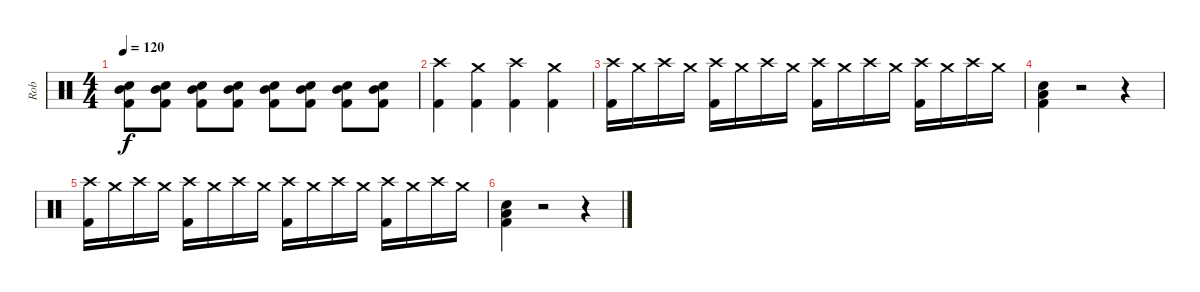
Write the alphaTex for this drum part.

\track ("Rob" "Rob") {instrument percussion}
\staff {score}
\articulation defaults
\ts (4 4)
\tempo 120
\clef neutral
\ks c
("Snare (hit) 2" "Kick (hit) 2" "Mid Tom (hit)").8{dy f} ("Snare (hit) 2" "Kick (hit) 2" "Mid Tom (hit)").8 ("Snare (hit) 2" "Kick (hit) 2" "Mid Tom (hit)").8 ("Snare (hit) 2" "Kick (hit) 2" "Mid Tom (hit)").8 ("Snare (hit) 2" "Kick (hit) 2" "Mid Tom (hit)").8 ("Snare (hit) 2" "Kick (hit) 2" "Mid Tom (hit)").8 ("Snare (hit) 2" "Kick (hit) 2" "Mid Tom (hit)").8 ("Snare (hit) 2" "Kick (hit) 2" "Mid Tom (hit)").8 |
("Crash high (hit)" "Kick (hit) 2").4 ("Crash medium (hit)" "Kick (hit) 2").4 ("Crash high (hit)" "Kick (hit) 2").4 ("Crash medium (hit)" "Kick (hit) 2").4 |
("Crash high (hit)" "Kick (hit) 2").16 "Crash medium (hit)".16 "Crash high (hit)".16 "Crash medium (hit)".16 ("Crash high (hit)" "Kick (hit) 2").16 "Crash medium (hit)".16 "Crash high (hit)".16 "Crash medium (hit)".16 ("Crash high (hit)" "Kick (hit) 2").16 "Crash medium (hit)".16 "Crash high (hit)".16 "Crash medium (hit)".16 ("Crash high (hit)" "Kick (hit) 2").16 "Crash medium (hit)".16 "Crash high (hit)".16 "Crash medium (hit)".16 |
("Snare (hit) 2" "Low Floor Tom (hit)" "Kick (hit) 2").4 r.2 r.4 |
("Crash high (hit)" "Kick (hit) 2").16 "Crash medium (hit)".16 "Crash high (hit)".16 "Crash medium (hit)".16 ("Crash high (hit)" "Kick (hit) 2").16 "Crash medium (hit)".16 "Crash high (hit)".16 "Crash medium (hit)".16 ("Crash high (hit)" "Kick (hit) 2").16 "Crash medium (hit)".16 "Crash high (hit)".16 "Crash medium (hit)".16 ("Crash high (hit)" "Kick (hit) 2").16 "Crash medium (hit)".16 "Crash high (hit)".16 "Crash medium (hit)".16 |
("Snare (hit) 2" "Low Floor Tom (hit)" "Kick (hit) 2").4 r.2 r.4
